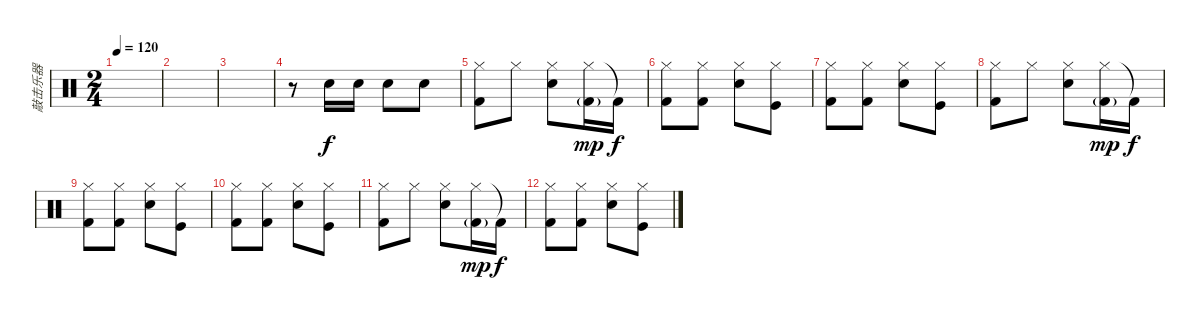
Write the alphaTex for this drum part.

\track ("敲击乐器" "敲击乐器") {instrument percussion}
\staff {score}
\articulation defaults
\ts (2 4)
\tempo 120
\clef neutral
\ks aminor
|
|
|
r.8 "Snare (hit) 2".16 "Snare (hit) 2".16 "Snare (hit) 2".8 "Snare (hit) 2".8 |
("Hi-Hat (closed)" "Kick (hit) 2").8 "Hi-Hat (closed)".8 ("Hi-Hat (closed)" "Snare (hit) 2").8 ("Hi-Hat (closed)" "Kick (hit) 2"{g}).16{dy mp} "Kick (hit) 2"{t}.16{dy f} |
("Hi-Hat (closed)" "Kick (hit) 2").8 ("Hi-Hat (closed)" "Kick (hit) 2").8 ("Hi-Hat (closed)" "Snare (hit) 2").8 ("Hi-Hat (closed)" "Kick (hit)").8 |
("Hi-Hat (closed)" "Kick (hit) 2").8 ("Hi-Hat (closed)" "Kick (hit) 2").8 ("Hi-Hat (closed)" "Snare (hit) 2").8 ("Hi-Hat (closed)" "Kick (hit)").8 |
("Hi-Hat (closed)" "Kick (hit) 2").8 "Hi-Hat (closed)".8 ("Hi-Hat (closed)" "Snare (hit) 2").8 ("Hi-Hat (closed)" "Kick (hit) 2"{g}).16{dy mp} "Kick (hit) 2"{t}.16{dy f} |
("Hi-Hat (closed)" "Kick (hit) 2").8 ("Hi-Hat (closed)" "Kick (hit) 2").8 ("Hi-Hat (closed)" "Snare (hit) 2").8 ("Hi-Hat (closed)" "Kick (hit)").8 |
("Hi-Hat (closed)" "Kick (hit) 2").8 ("Hi-Hat (closed)" "Kick (hit) 2").8 ("Hi-Hat (closed)" "Snare (hit) 2").8 ("Hi-Hat (closed)" "Kick (hit)").8 |
("Hi-Hat (closed)" "Kick (hit) 2").8 "Hi-Hat (closed)".8 ("Hi-Hat (closed)" "Snare (hit) 2").8 ("Hi-Hat (closed)" "Kick (hit) 2"{g}).16{dy mp} "Kick (hit) 2"{t}.16{dy f} |
("Hi-Hat (closed)" "Kick (hit) 2").8 ("Hi-Hat (closed)" "Kick (hit) 2").8 ("Hi-Hat (closed)" "Snare (hit) 2").8 ("Hi-Hat (closed)" "Kick (hit)").8
